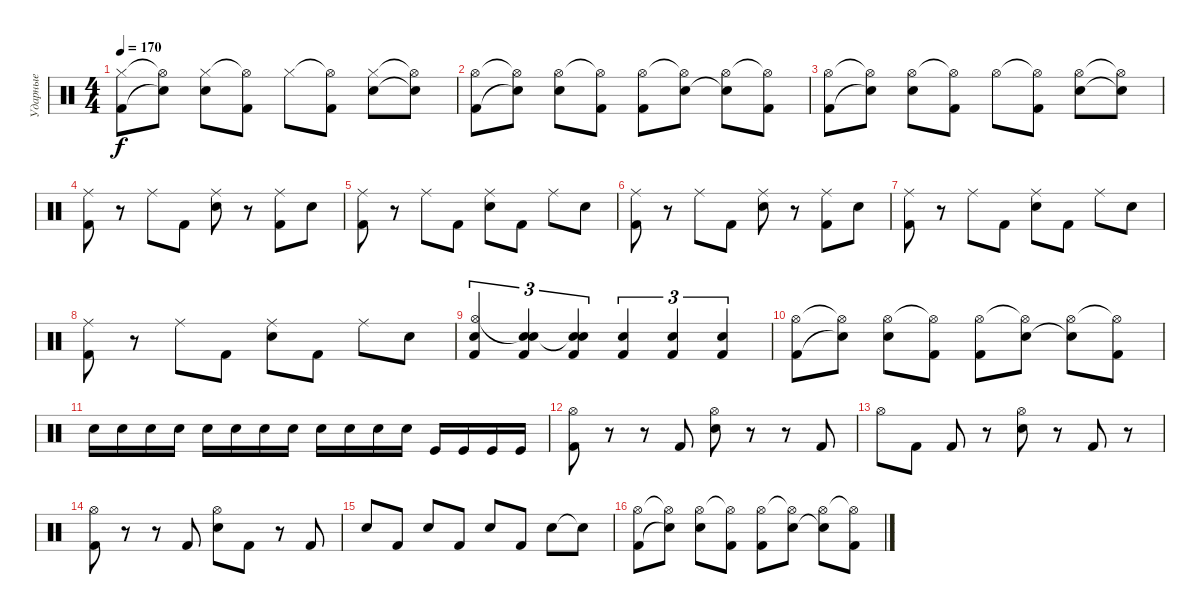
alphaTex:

\track ("Ударные" "Ударные") {instrument percussion}
\staff {score}
\articulation defaults
\ts (4 4)
\tempo 170
\clef neutral
\ks c
("Hi-Hat (closed)" "Kick (hit) 2").8{dy f} ("Hi-Hat (open)"{t} "Snare (hit)"{t}).8 ("Hi-Hat (closed)" "Electric Snare (hit)").8 ("Hi-Hat (open)"{t} "Kick (hit) 2").8 "Hi-Hat (closed)".8 ("Hi-Hat (open)"{t} "Kick (hit) 2").8 ("Hi-Hat (closed)" "Electric Snare (hit)").8 ("Hi-Hat (open)"{t} "Snare (hit)"{t}).8 |
("Hi-Hat (open)" "Kick (hit) 2").8 ("Hi-Hat (open)"{t} "Snare (hit)"{t}).8 ("Hi-Hat (open)" "Electric Snare (hit)").8 ("Hi-Hat (open)"{t} "Kick (hit) 2").8 ("Hi-Hat (open)" "Kick (hit) 2").8 ("Hi-Hat (open)"{t} "Electric Snare (hit)").8 ("Hi-Hat (open)" "Snare (hit)"{t}).8 ("Hi-Hat (open)"{t} "Kick (hit) 2").8 |
("Hi-Hat (open)" "Kick (hit) 2").8 ("Hi-Hat (open)"{t} "Snare (hit)"{t}).8 ("Hi-Hat (open)" "Electric Snare (hit)").8 ("Hi-Hat (open)"{t} "Kick (hit) 2").8 "Hi-Hat (open)".8 ("Hi-Hat (open)"{t} "Kick (hit) 2").8 ("Hi-Hat (open)" "Electric Snare (hit)").8 ("Hi-Hat (open)"{t} "Snare (hit)"{t}).8 |
("Ride (middle)" "Kick (hit) 2").8 r.8 "Ride (middle)".8 "Kick (hit) 2".8 ("Ride (middle)" "Electric Snare (hit)").8 r.8 ("Ride (middle)" "Kick (hit) 2").8 "Electric Snare (hit)".8 |
("Ride (middle)" "Kick (hit) 2").8 r.8 "Ride (middle)".8 "Kick (hit) 2".8 ("Ride (middle)" "Electric Snare (hit)").8 "Kick (hit) 2".8 "Ride (middle)".8 "Electric Snare (hit)".8 |
("Ride (middle)" "Kick (hit) 2").8 r.8 "Ride (middle)".8 "Kick (hit) 2".8 ("Ride (middle)" "Electric Snare (hit)").8 r.8 ("Ride (middle)" "Kick (hit) 2").8 "Electric Snare (hit)".8 |
("Ride (middle)" "Kick (hit) 2").8 r.8 "Ride (middle)".8 "Kick (hit) 2".8 ("Ride (middle)" "Electric Snare (hit)").8 "Kick (hit) 2".8 "Ride (middle)".8 "Electric Snare (hit)".8 |
("Ride (middle)" "Kick (hit) 2").8 r.8 "Ride (middle)".8 "Kick (hit) 2".8 ("Ride (middle)" "Electric Snare (hit)").8 "Kick (hit) 2".8 "Ride (middle)".8 "Electric Snare (hit)".8 |
("Hi-Hat (open)" "Electric Snare (hit)" "Kick (hit) 2").4{tu (3 2)} ("Snare (hit)"{t} "Electric Snare (hit)" "Kick (hit) 2").4{tu (3 2)} ("Snare (hit)"{t} "Electric Snare (hit)" "Kick (hit) 2").4{tu (3 2)} ("Electric Snare (hit)" "Kick (hit) 2").4{tu (3 2)} ("Electric Snare (hit)" "Kick (hit) 2").4{tu (3 2)} ("Electric Snare (hit)" "Kick (hit) 2").4{tu (3 2)} |
("Hi-Hat (open)" "Kick (hit) 2").8 ("Hi-Hat (open)"{t} "Snare (hit)"{t}).8 ("Hi-Hat (open)" "Electric Snare (hit)").8 ("Hi-Hat (open)"{t} "Kick (hit) 2").8 ("Hi-Hat (open)" "Kick (hit) 2").8 ("Hi-Hat (open)"{t} "Electric Snare (hit)").8 ("Hi-Hat (open)" "Snare (hit)"{t}).8 ("Hi-Hat (open)"{t} "Kick (hit) 2").8 |
"Snare (hit) 2".16 "Snare (hit) 2".16 "Snare (hit) 2".16 "Snare (hit) 2".16 "Electric Snare (hit)".16 "Electric Snare (hit)".16 "Electric Snare (hit)".16 "Electric Snare (hit)".16 "Snare (hit) 2".16 "Snare (hit) 2".16 "Snare (hit) 2".16 "Snare (hit) 2".16 "Kick (hit)".16 "Kick (hit)".16 "Kick (hit)".16 "Kick (hit)".16 |
("Hi-Hat (open)" "Kick (hit) 2").8 r.8 r.8 "Kick (hit) 2".8 ("Hi-Hat (open)" "Electric Snare (hit)").8 r.8 r.8 "Kick (hit) 2".8 |
"Hi-Hat (open)".8 "Kick (hit) 2".8 "Kick (hit) 2".8 r.8 ("Hi-Hat (open)" "Electric Snare (hit)").8 r.8 "Kick (hit) 2".8 r.8 |
("Hi-Hat (open)" "Kick (hit) 2").8 r.8 r.8 "Kick (hit) 2".8 ("Hi-Hat (open)" "Electric Snare (hit)").8 "Kick (hit) 2".8 r.8 "Kick (hit) 2".8 |
"Electric Snare (hit)".8 "Kick (hit) 2".8 "Electric Snare (hit)".8 "Kick (hit) 2".8 "Electric Snare (hit)".8 "Kick (hit) 2".8 "Electric Snare (hit)".8 "Snare (hit)"{t}.8 |
("Hi-Hat (open)" "Kick (hit) 2").8 ("Hi-Hat (open)"{t} "Snare (hit)"{t}).8 ("Hi-Hat (open)" "Electric Snare (hit)").8 ("Hi-Hat (open)"{t} "Kick (hit) 2").8 ("Hi-Hat (open)" "Kick (hit) 2").8 ("Hi-Hat (open)"{t} "Electric Snare (hit)").8 ("Hi-Hat (open)" "Snare (hit)"{t}).8 ("Hi-Hat (open)"{t} "Kick (hit) 2").8
